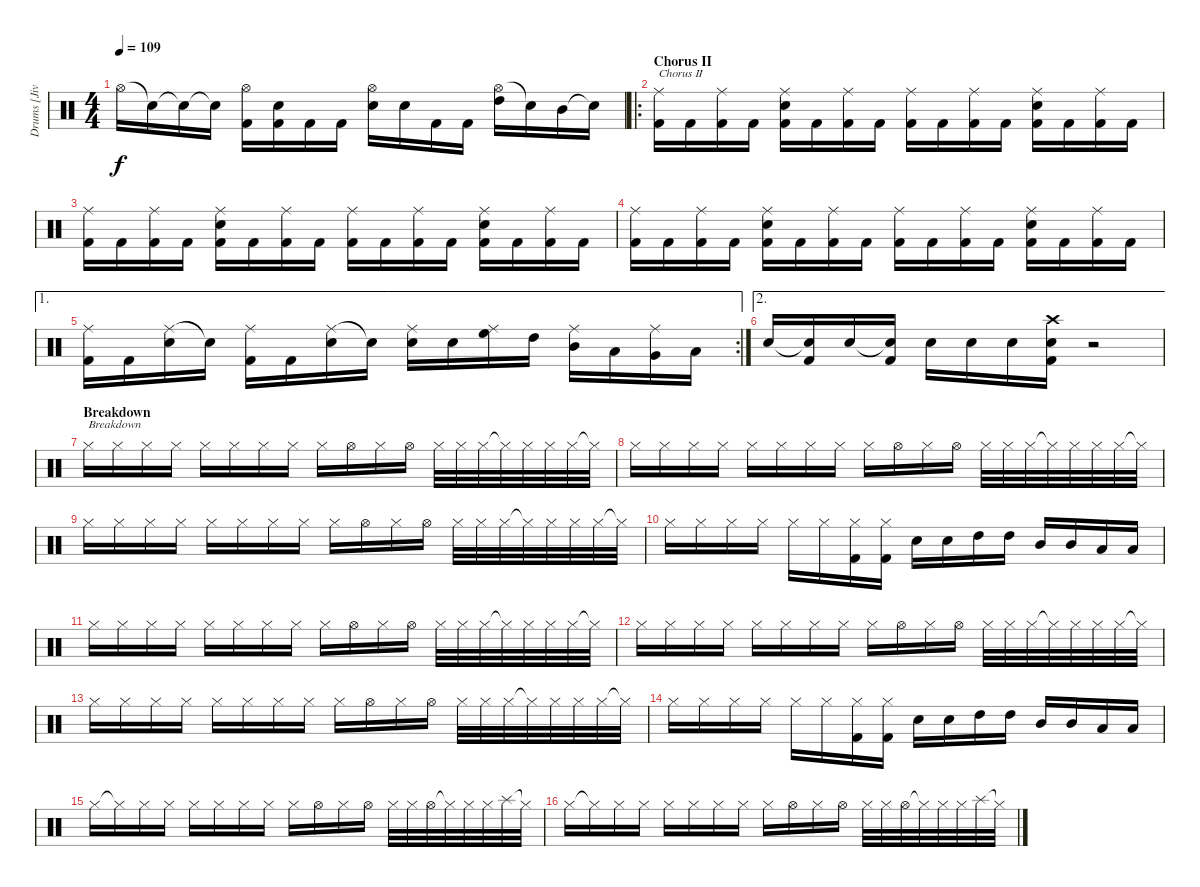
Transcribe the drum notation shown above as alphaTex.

\track ("Drums [Jivarp]" "Drums [Jiv") {instrument percussion}
\staff {score}
\articulation defaults
\ts (4 4)
\tempo 109
\clef neutral
\ks c "Hi-Hat (open)".16{dy f} "Snare (hit)"{t}.16 "Snare (hit)"{t}.16 "Snare (hit)"{t}.16
("Hi-Hat (open)" "Kick (hit) 2").16 ("Electric Snare (hit)" "Kick (hit) 2").16 "Kick (hit) 2".16 "Kick (hit) 2".16 ("Hi-Hat (open)" "Electric Snare (hit)").16 "Electric Snare (hit)".16 "Kick (hit) 2".16 "Kick (hit) 2".16 ("Hi-Hat (open)" "High Tom (hit)").16 "Snare (hit)"{t}.16 "Mid Tom (hit)".16 "Snare (hit)"{t}.16 |
\ro
\section ("" "Chorus II")
("Ride (middle)" "Kick (hit) 2").16{txt "Chorus II"} "Kick (hit) 2".16 ("Ride (middle)" "Kick (hit) 2").16 "Kick (hit) 2".16 ("Ride (middle)" "Electric Snare (hit)" "Kick (hit) 2").16 "Kick (hit) 2".16 ("Ride (middle)" "Kick (hit) 2").16 "Kick (hit) 2".16 ("Ride (middle)" "Kick (hit) 2").16 "Kick (hit) 2".16 ("Ride (middle)" "Kick (hit) 2").16 "Kick (hit) 2".16 ("Ride (middle)" "Electric Snare (hit)" "Kick (hit) 2").16 "Kick (hit) 2".16 ("Ride (middle)" "Kick (hit) 2").16 "Kick (hit) 2".16 |
("Ride (middle)" "Kick (hit) 2").16 "Kick (hit) 2".16 ("Ride (middle)" "Kick (hit) 2").16 "Kick (hit) 2".16 ("Ride (middle)" "Electric Snare (hit)" "Kick (hit) 2").16 "Kick (hit) 2".16 ("Ride (middle)" "Kick (hit) 2").16 "Kick (hit) 2".16 ("Ride (middle)" "Kick (hit) 2").16 "Kick (hit) 2".16 ("Ride (middle)" "Kick (hit) 2").16 "Kick (hit) 2".16 ("Ride (middle)" "Electric Snare (hit)" "Kick (hit) 2").16 "Kick (hit) 2".16 ("Ride (middle)" "Kick (hit) 2").16 "Kick (hit) 2".16 |
("Ride (middle)" "Kick (hit) 2").16 "Kick (hit) 2".16 ("Ride (middle)" "Kick (hit) 2").16 "Kick (hit) 2".16 ("Ride (middle)" "Electric Snare (hit)" "Kick (hit) 2").16 "Kick (hit) 2".16 ("Ride (middle)" "Kick (hit) 2").16 "Kick (hit) 2".16 ("Ride (middle)" "Kick (hit) 2").16 "Kick (hit) 2".16 ("Ride (middle)" "Kick (hit) 2").16 "Kick (hit) 2".16 ("Ride (middle)" "Electric Snare (hit)" "Kick (hit) 2").16 "Kick (hit) 2".16 ("Ride (middle)" "Kick (hit) 2").16 "Kick (hit) 2".16 |
\ae 1
\rc 2
("Ride (middle)" "Kick (hit) 2").16 "Kick (hit) 2".16 ("Ride (middle)" "Electric Snare (hit)").16 "Electric Snare (hit)"{t}.16 ("Ride (middle)" "Kick (hit) 2").16 "Kick (hit) 2".16 ("Ride (middle)" "Electric Snare (hit)").16 "Electric Snare (hit)"{t}.16 ("Ride (middle)" "Electric Snare (hit)").16 "Electric Snare (hit)".16 ("Ride (middle)" "High Floor Tom (hit)").16 "High Tom (hit)".16 ("Ride (middle)" "Mid Tom (hit)").16 "Low Tom (hit)".16 ("Ride (middle)" "Very Low Tom (hit)").16 "Low Tom (hit)".16 |
\ae 2 "Electric Snare (hit)".16
("Snare (hit)"{t} "Kick (hit) 2").16 "Electric Snare (hit)".16 ("Electric Snare (hit)"{t} "Kick (hit) 2").16 "Electric Snare (hit)".16 "Electric Snare (hit)".16 "Electric Snare (hit)".16 ("Crash high (hit)" "Electric Snare (hit)" "Kick (hit) 2").16 r.2 |
\section ("" "Breakdown")
"Hi-Hat (closed)".16{txt "Breakdown"} "Hi-Hat (closed)".16 "Hi-Hat (closed)".16 "Hi-Hat (closed)".16 "Hi-Hat (closed)".16 "Hi-Hat (closed)".16 "Hi-Hat (closed)".16 "Hi-Hat (closed)".16 "Hi-Hat (closed)".16 "Hi-Hat (open)".16 "Hi-Hat (closed)".16 "Hi-Hat (open)".16 "Hi-Hat (closed)".32 "Hi-Hat (closed)".32 "Hi-Hat (closed)".32 "Hi-Hat (closed)"{t}.32 "Hi-Hat (closed)".32 "Hi-Hat (closed)".32 "Hi-Hat (closed)".32 "Hi-Hat (closed)"{t}.32 |
"Hi-Hat (closed)".16 "Hi-Hat (closed)".16 "Hi-Hat (closed)".16 "Hi-Hat (closed)".16 "Hi-Hat (closed)".16 "Hi-Hat (closed)".16 "Hi-Hat (closed)".16 "Hi-Hat (closed)".16 "Hi-Hat (closed)".16 "Hi-Hat (open)".16 "Hi-Hat (closed)".16 "Hi-Hat (open)".16 "Hi-Hat (closed)".32 "Hi-Hat (closed)".32 "Hi-Hat (closed)".32 "Hi-Hat (closed)"{t}.32 "Hi-Hat (closed)".32 "Hi-Hat (closed)".32 "Hi-Hat (closed)".32 "Hi-Hat (closed)"{t}.32 |
"Hi-Hat (closed)".16 "Hi-Hat (closed)".16 "Hi-Hat (closed)".16 "Hi-Hat (closed)".16 "Hi-Hat (closed)".16 "Hi-Hat (closed)".16 "Hi-Hat (closed)".16 "Hi-Hat (closed)".16 "Hi-Hat (closed)".16 "Hi-Hat (open)".16 "Hi-Hat (closed)".16 "Hi-Hat (open)".16 "Hi-Hat (closed)".32 "Hi-Hat (closed)".32 "Hi-Hat (closed)".32 "Hi-Hat (closed)"{t}.32 "Hi-Hat (closed)".32 "Hi-Hat (closed)".32 "Hi-Hat (closed)".32 "Hi-Hat (closed)"{t}.32 |
"Hi-Hat (closed)".16 "Hi-Hat (closed)".16 "Hi-Hat (closed)".16 "Hi-Hat (closed)".16 "Hi-Hat (closed)".16 "Hi-Hat (closed)".16 ("Hi-Hat (closed)" "Kick (hit) 2").16 ("Hi-Hat (closed)" "Kick (hit) 2").16 "Electric Snare (hit)".16 "Electric Snare (hit)".16 "High Tom (hit)".16 "High Tom (hit)".16 "Mid Tom (hit)".16 "Mid Tom (hit)".16 "Low Tom (hit)".16 "Low Tom (hit)".16 |
"Hi-Hat (closed)".16 "Hi-Hat (closed)".16 "Hi-Hat (closed)".16 "Hi-Hat (closed)".16 "Hi-Hat (closed)".16 "Hi-Hat (closed)".16 "Hi-Hat (closed)".16 "Hi-Hat (closed)".16 "Hi-Hat (closed)".16 "Hi-Hat (open)".16 "Hi-Hat (closed)".16 "Hi-Hat (open)".16 "Hi-Hat (closed)".32 "Hi-Hat (closed)".32 "Hi-Hat (closed)".32 "Hi-Hat (closed)"{t}.32 "Hi-Hat (closed)".32 "Hi-Hat (closed)".32 "Hi-Hat (closed)".32 "Hi-Hat (closed)"{t}.32 |
"Hi-Hat (closed)".16 "Hi-Hat (closed)".16 "Hi-Hat (closed)".16 "Hi-Hat (closed)".16 "Hi-Hat (closed)".16 "Hi-Hat (closed)".16 "Hi-Hat (closed)".16 "Hi-Hat (closed)".16 "Hi-Hat (closed)".16 "Hi-Hat (open)".16 "Hi-Hat (closed)".16 "Hi-Hat (open)".16 "Hi-Hat (closed)".32 "Hi-Hat (closed)".32 "Hi-Hat (closed)".32 "Hi-Hat (closed)"{t}.32 "Hi-Hat (closed)".32 "Hi-Hat (closed)".32 "Hi-Hat (closed)".32 "Hi-Hat (closed)"{t}.32 |
"Hi-Hat (closed)".16 "Hi-Hat (closed)".16 "Hi-Hat (closed)".16 "Hi-Hat (closed)".16 "Hi-Hat (closed)".16 "Hi-Hat (closed)".16 "Hi-Hat (closed)".16 "Hi-Hat (closed)".16 "Hi-Hat (closed)".16 "Hi-Hat (open)".16 "Hi-Hat (closed)".16 "Hi-Hat (open)".16 "Hi-Hat (closed)".32 "Hi-Hat (closed)".32 "Hi-Hat (closed)".32 "Hi-Hat (closed)"{t}.32 "Hi-Hat (closed)".32 "Hi-Hat (closed)".32 "Hi-Hat (closed)".32 "Hi-Hat (closed)"{t}.32 |
"Hi-Hat (closed)".16 "Hi-Hat (closed)".16 "Hi-Hat (closed)".16 "Hi-Hat (closed)".16 "Hi-Hat (closed)".16 "Hi-Hat (closed)".16 ("Hi-Hat (closed)" "Kick (hit) 2").16 ("Hi-Hat (closed)" "Kick (hit) 2").16 "Electric Snare (hit)".16 "Electric Snare (hit)".16 "High Tom (hit)".16 "High Tom (hit)".16 "Mid Tom (hit)".16 "Mid Tom (hit)".16 "Low Tom (hit)".16 "Low Tom (hit)".16 |
"Hi-Hat (closed)".16 "Hi-Hat (closed)"{t}.16 "Hi-Hat (closed)".16 "Hi-Hat (closed)".16 "Hi-Hat (closed)".16 "Hi-Hat (closed)".16 "Hi-Hat (closed)".16 "Hi-Hat (closed)".16 "Hi-Hat (closed)".16 "Hi-Hat (open)".16 "Hi-Hat (closed)".16 "Hi-Hat (open)".16 "Hi-Hat (closed)".32 "Hi-Hat (closed)".32 "Hi-Hat (open)".32 "Hi-Hat (closed)"{t}.32 "Hi-Hat (closed)".32 "Hi-Hat (closed)".32 "Splash (hit)".32 "Hi-Hat (closed)"{t}.32 |
"Hi-Hat (closed)".16 "Hi-Hat (closed)"{t}.16 "Hi-Hat (closed)".16 "Hi-Hat (closed)".16 "Hi-Hat (closed)".16 "Hi-Hat (closed)".16 "Hi-Hat (closed)".16 "Hi-Hat (closed)".16 "Hi-Hat (closed)".16 "Hi-Hat (open)".16 "Hi-Hat (closed)".16 "Hi-Hat (open)".16 "Hi-Hat (closed)".32 "Hi-Hat (closed)".32 "Hi-Hat (open)".32 "Hi-Hat (closed)"{t}.32 "Hi-Hat (closed)".32 "Hi-Hat (closed)".32 "Splash (hit)".32 "Hi-Hat (closed)"{t}.32
